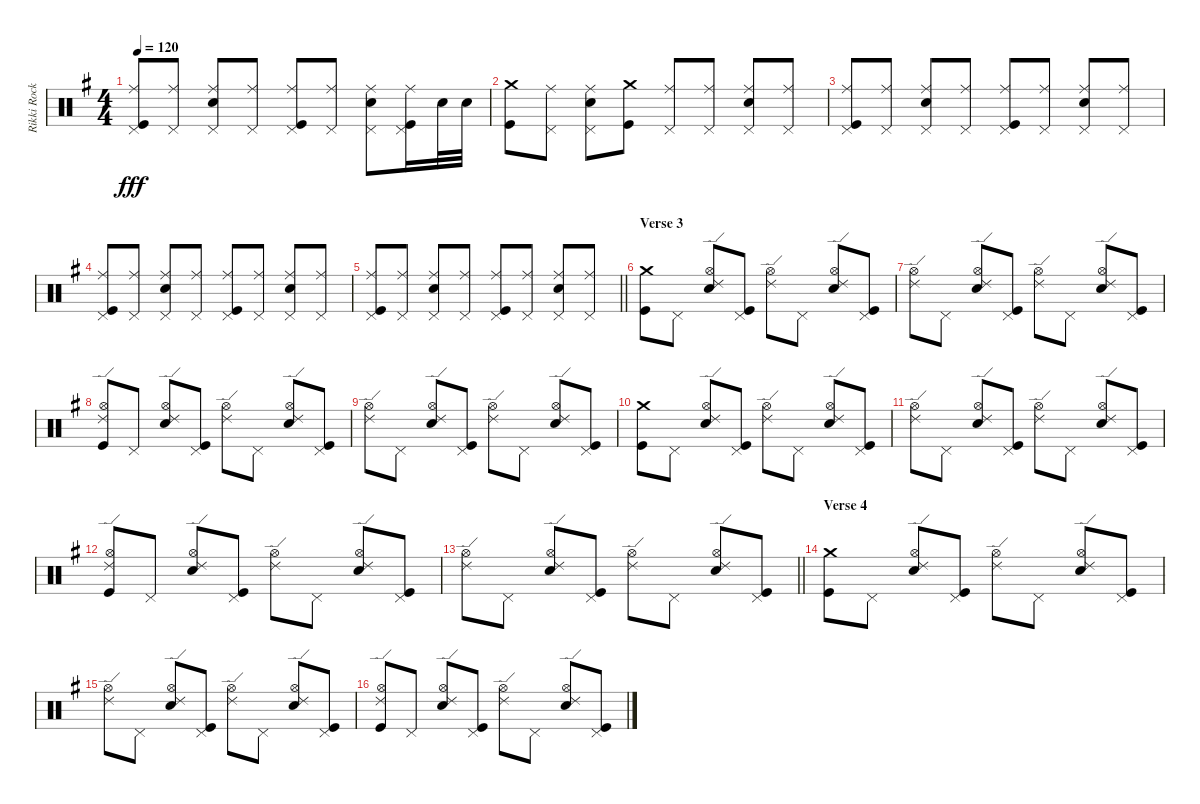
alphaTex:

\track ("Rikki Rocket: Drums" "Rikki Rock") {instrument percussion}
\staff {score}
\articulation defaults
\ts (4 4)
\tempo 120
\clef neutral
\ks g
("Ride (middle)" "Pedal Hi-Hat (hit)" "Kick (hit)").8{dy fff} ("Ride (middle)" "Pedal Hi-Hat (hit)").8 ("Ride (middle)" "Pedal Hi-Hat (hit)" "Electric Snare (hit)").8 ("Ride (middle)" "Pedal Hi-Hat (hit)").8 ("Ride (middle)" "Pedal Hi-Hat (hit)" "Kick (hit)").8 ("Ride (middle)" "Pedal Hi-Hat (hit)").8 ("Ride (middle)" "Pedal Hi-Hat (hit)" "Electric Snare (hit)").8 ("Ride (middle)" "Pedal Hi-Hat (hit)" "Kick (hit)").16 "Electric Snare (hit)".32 "Electric Snare (hit)".32 |
("Crash medium (hit)" "Kick (hit)").8 ("Ride (middle)" "Pedal Hi-Hat (hit)").8 ("Ride (middle)" "Pedal Hi-Hat (hit)" "Electric Snare (hit)").8 ("Crash medium (hit)" "Kick (hit)").8 ("Ride (middle)" "Pedal Hi-Hat (hit)").8 ("Ride (middle)" "Pedal Hi-Hat (hit)").8 ("Ride (middle)" "Pedal Hi-Hat (hit)" "Electric Snare (hit)").8 ("Ride (middle)" "Pedal Hi-Hat (hit)").8 |
("Ride (middle)" "Pedal Hi-Hat (hit)" "Kick (hit)").8 ("Ride (middle)" "Pedal Hi-Hat (hit)").8 ("Ride (middle)" "Pedal Hi-Hat (hit)" "Electric Snare (hit)").8 ("Ride (middle)" "Pedal Hi-Hat (hit)").8 ("Ride (middle)" "Pedal Hi-Hat (hit)" "Kick (hit)").8 ("Ride (middle)" "Pedal Hi-Hat (hit)").8 ("Ride (middle)" "Pedal Hi-Hat (hit)" "Electric Snare (hit)").8 ("Ride (middle)" "Pedal Hi-Hat (hit)").8 |
("Ride (middle)" "Pedal Hi-Hat (hit)" "Kick (hit)").8 ("Ride (middle)" "Pedal Hi-Hat (hit)").8 ("Ride (middle)" "Pedal Hi-Hat (hit)" "Electric Snare (hit)").8 ("Ride (middle)" "Pedal Hi-Hat (hit)").8 ("Ride (middle)" "Pedal Hi-Hat (hit)" "Kick (hit)").8 ("Ride (middle)" "Pedal Hi-Hat (hit)").8 ("Ride (middle)" "Pedal Hi-Hat (hit)" "Electric Snare (hit)").8 ("Ride (middle)" "Pedal Hi-Hat (hit)").8 |
\barLineRight lightlight
("Ride (middle)" "Pedal Hi-Hat (hit)" "Kick (hit)").8 ("Ride (middle)" "Pedal Hi-Hat (hit)").8 ("Ride (middle)" "Pedal Hi-Hat (hit)" "Electric Snare (hit)").8 ("Ride (middle)" "Pedal Hi-Hat (hit)").8 ("Ride (middle)" "Pedal Hi-Hat (hit)" "Kick (hit)").8 ("Ride (middle)" "Pedal Hi-Hat (hit)").8 ("Ride (middle)" "Pedal Hi-Hat (hit)" "Electric Snare (hit)").8 ("Ride (middle)" "Pedal Hi-Hat (hit)").8 |
\section ("" "Verse 3")
("Crash medium (hit)" "Kick (hit)").8 "Pedal Hi-Hat (hit)".8 ("Hi-Hat (open)" "Ride (edge) 2" "Electric Snare (hit)").8 ("Pedal Hi-Hat (hit)" "Kick (hit)").8 ("Hi-Hat (open)" "Ride (edge) 2").8 "Pedal Hi-Hat (hit)".8 ("Hi-Hat (open)" "Ride (edge) 2" "Electric Snare (hit)").8 ("Pedal Hi-Hat (hit)" "Kick (hit)").8 |
("Hi-Hat (open)" "Ride (edge) 2").8 "Pedal Hi-Hat (hit)".8 ("Hi-Hat (open)" "Ride (edge) 2" "Electric Snare (hit)").8 ("Pedal Hi-Hat (hit)" "Kick (hit)").8 ("Hi-Hat (open)" "Ride (edge) 2").8 "Pedal Hi-Hat (hit)".8 ("Hi-Hat (open)" "Ride (edge) 2" "Electric Snare (hit)").8 ("Pedal Hi-Hat (hit)" "Kick (hit)").8 |
("Hi-Hat (open)" "Ride (edge) 2" "Kick (hit)").8 "Pedal Hi-Hat (hit)".8 ("Hi-Hat (open)" "Ride (edge) 2" "Electric Snare (hit)").8 ("Pedal Hi-Hat (hit)" "Kick (hit)").8 ("Hi-Hat (open)" "Ride (edge) 2").8 "Pedal Hi-Hat (hit)".8 ("Hi-Hat (open)" "Ride (edge) 2" "Electric Snare (hit)").8 ("Pedal Hi-Hat (hit)" "Kick (hit)").8 |
("Hi-Hat (open)" "Ride (edge) 2").8 "Pedal Hi-Hat (hit)".8 ("Hi-Hat (open)" "Ride (edge) 2" "Electric Snare (hit)").8 ("Pedal Hi-Hat (hit)" "Kick (hit)").8 ("Hi-Hat (open)" "Ride (edge) 2").8 "Pedal Hi-Hat (hit)".8 ("Hi-Hat (open)" "Ride (edge) 2" "Electric Snare (hit)").8 ("Pedal Hi-Hat (hit)" "Kick (hit)").8 |
("Crash medium (hit)" "Kick (hit)").8 "Pedal Hi-Hat (hit)".8 ("Hi-Hat (open)" "Ride (edge) 2" "Electric Snare (hit)").8 ("Pedal Hi-Hat (hit)" "Kick (hit)").8 ("Hi-Hat (open)" "Ride (edge) 2").8 "Pedal Hi-Hat (hit)".8 ("Hi-Hat (open)" "Ride (edge) 2" "Electric Snare (hit)").8 ("Pedal Hi-Hat (hit)" "Kick (hit)").8 |
("Hi-Hat (open)" "Ride (edge) 2").8 "Pedal Hi-Hat (hit)".8 ("Hi-Hat (open)" "Ride (edge) 2" "Electric Snare (hit)").8 ("Pedal Hi-Hat (hit)" "Kick (hit)").8 ("Hi-Hat (open)" "Ride (edge) 2").8 "Pedal Hi-Hat (hit)".8 ("Hi-Hat (open)" "Ride (edge) 2" "Electric Snare (hit)").8 ("Pedal Hi-Hat (hit)" "Kick (hit)").8 |
("Hi-Hat (open)" "Ride (edge) 2" "Kick (hit)").8 "Pedal Hi-Hat (hit)".8 ("Hi-Hat (open)" "Ride (edge) 2" "Electric Snare (hit)").8 ("Pedal Hi-Hat (hit)" "Kick (hit)").8 ("Hi-Hat (open)" "Ride (edge) 2").8 "Pedal Hi-Hat (hit)".8 ("Hi-Hat (open)" "Ride (edge) 2" "Electric Snare (hit)").8 ("Pedal Hi-Hat (hit)" "Kick (hit)").8 |
\barLineRight lightlight
("Hi-Hat (open)" "Ride (edge) 2").8 "Pedal Hi-Hat (hit)".8 ("Hi-Hat (open)" "Ride (edge) 2" "Electric Snare (hit)").8 ("Pedal Hi-Hat (hit)" "Kick (hit)").8 ("Hi-Hat (open)" "Ride (edge) 2").8 "Pedal Hi-Hat (hit)".8 ("Hi-Hat (open)" "Ride (edge) 2" "Electric Snare (hit)").8 ("Pedal Hi-Hat (hit)" "Kick (hit)").8 |
\section ("" "Verse 4")
("Crash medium (hit)" "Kick (hit)").8 "Pedal Hi-Hat (hit)".8 ("Hi-Hat (open)" "Ride (edge) 2" "Electric Snare (hit)").8 ("Pedal Hi-Hat (hit)" "Kick (hit)").8 ("Hi-Hat (open)" "Ride (edge) 2").8 "Pedal Hi-Hat (hit)".8 ("Hi-Hat (open)" "Ride (edge) 2" "Electric Snare (hit)").8 ("Pedal Hi-Hat (hit)" "Kick (hit)").8 |
("Hi-Hat (open)" "Ride (edge) 2").8 "Pedal Hi-Hat (hit)".8 ("Hi-Hat (open)" "Ride (edge) 2" "Electric Snare (hit)").8 ("Pedal Hi-Hat (hit)" "Kick (hit)").8 ("Hi-Hat (open)" "Ride (edge) 2").8 "Pedal Hi-Hat (hit)".8 ("Hi-Hat (open)" "Ride (edge) 2" "Electric Snare (hit)").8 ("Pedal Hi-Hat (hit)" "Kick (hit)").8 |
("Hi-Hat (open)" "Ride (edge) 2" "Kick (hit)").8 "Pedal Hi-Hat (hit)".8 ("Hi-Hat (open)" "Ride (edge) 2" "Electric Snare (hit)").8 ("Pedal Hi-Hat (hit)" "Kick (hit)").8 ("Hi-Hat (open)" "Ride (edge) 2").8 "Pedal Hi-Hat (hit)".8 ("Hi-Hat (open)" "Ride (edge) 2" "Electric Snare (hit)").8 ("Pedal Hi-Hat (hit)" "Kick (hit)").8
